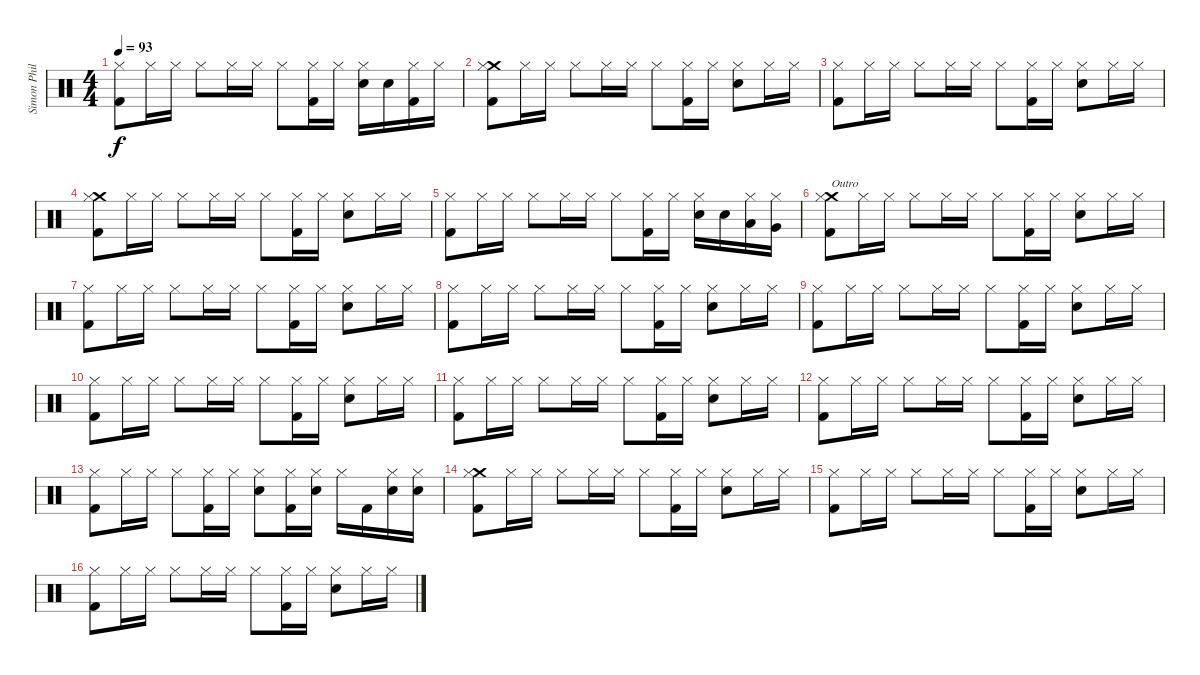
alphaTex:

\track ("Simon Phillips" "Simon Phil") {instrument percussion}
\staff {score}
\articulation defaults
\ts (4 4)
\tempo 93
\clef neutral
\ks c
("Hi-Hat (closed)" "Kick (hit) 2").8{dy f} "Hi-Hat (closed)".16 "Hi-Hat (closed)".16 "Hi-Hat (closed)".8 "Hi-Hat (closed)".16 "Hi-Hat (closed)".16 "Hi-Hat (closed)".8 ("Hi-Hat (closed)" "Kick (hit) 2").16 "Hi-Hat (closed)".16 ("Electric Snare (hit)" "Hi-Hat (closed)").16 "Electric Snare (hit)".16 ("Hi-Hat (closed)" "Kick (hit) 2").16 "Hi-Hat (closed)".16 |
("Crash medium (hit)" "Hi-Hat (closed)" "Kick (hit) 2").8 "Hi-Hat (closed)".16 "Hi-Hat (closed)".16 "Hi-Hat (closed)".8 "Hi-Hat (closed)".16 "Hi-Hat (closed)".16 "Hi-Hat (closed)".8 ("Hi-Hat (closed)" "Kick (hit) 2").16 "Hi-Hat (closed)".16 ("Electric Snare (hit)" "Hi-Hat (closed)").8 "Hi-Hat (closed)".16 "Hi-Hat (closed)".16 |
("Hi-Hat (closed)" "Kick (hit) 2").8 "Hi-Hat (closed)".16 "Hi-Hat (closed)".16 "Hi-Hat (closed)".8 "Hi-Hat (closed)".16 "Hi-Hat (closed)".16 "Hi-Hat (closed)".8 ("Hi-Hat (closed)" "Kick (hit) 2").16 "Hi-Hat (closed)".16 ("Electric Snare (hit)" "Hi-Hat (closed)").8 "Hi-Hat (closed)".16 "Hi-Hat (closed)".16 |
("Crash medium (hit)" "Hi-Hat (closed)" "Kick (hit) 2").8 "Hi-Hat (closed)".16 "Hi-Hat (closed)".16 "Hi-Hat (closed)".8 "Hi-Hat (closed)".16 "Hi-Hat (closed)".16 "Hi-Hat (closed)".8 ("Hi-Hat (closed)" "Kick (hit) 2").16 "Hi-Hat (closed)".16 ("Electric Snare (hit)" "Hi-Hat (closed)").8 "Hi-Hat (closed)".16 "Hi-Hat (closed)".16 |
("Hi-Hat (closed)" "Kick (hit) 2").8 "Hi-Hat (closed)".16 "Hi-Hat (closed)".16 "Hi-Hat (closed)".8 "Hi-Hat (closed)".16 "Hi-Hat (closed)".16 "Hi-Hat (closed)".8 ("Hi-Hat (closed)" "Kick (hit) 2").16 "Hi-Hat (closed)".16 ("Electric Snare (hit)" "Hi-Hat (closed)").16 "Electric Snare (hit)".16 ("Low Tom (hit)" "Hi-Hat (closed)").16 ("Very Low Tom (hit)" "Hi-Hat (closed)").16 |
("Crash medium (hit)" "Hi-Hat (closed)" "Kick (hit) 2").8{txt "Outro"} "Hi-Hat (closed)".16 "Hi-Hat (closed)".16 "Hi-Hat (closed)".8 "Hi-Hat (closed)".16 "Hi-Hat (closed)".16 "Hi-Hat (closed)".8 ("Hi-Hat (closed)" "Kick (hit) 2").16 "Hi-Hat (closed)".16 ("Electric Snare (hit)" "Hi-Hat (closed)").8 "Hi-Hat (closed)".16 "Hi-Hat (closed)".16 |
("Hi-Hat (closed)" "Kick (hit) 2").8 "Hi-Hat (closed)".16 "Hi-Hat (closed)".16 "Hi-Hat (closed)".8 "Hi-Hat (closed)".16 "Hi-Hat (closed)".16 "Hi-Hat (closed)".8 ("Hi-Hat (closed)" "Kick (hit) 2").16 "Hi-Hat (closed)".16 ("Electric Snare (hit)" "Hi-Hat (closed)").8 "Hi-Hat (closed)".16 "Hi-Hat (closed)".16 |
("Hi-Hat (closed)" "Kick (hit) 2").8 "Hi-Hat (closed)".16 "Hi-Hat (closed)".16 "Hi-Hat (closed)".8 "Hi-Hat (closed)".16 "Hi-Hat (closed)".16 "Hi-Hat (closed)".8 ("Hi-Hat (closed)" "Kick (hit) 2").16 "Hi-Hat (closed)".16 ("Electric Snare (hit)" "Hi-Hat (closed)").8 "Hi-Hat (closed)".16 "Hi-Hat (closed)".16 |
("Hi-Hat (closed)" "Kick (hit) 2").8 "Hi-Hat (closed)".16 "Hi-Hat (closed)".16 "Hi-Hat (closed)".8 "Hi-Hat (closed)".16 "Hi-Hat (closed)".16 "Hi-Hat (closed)".8 ("Hi-Hat (closed)" "Kick (hit) 2").16 "Hi-Hat (closed)".16 ("Electric Snare (hit)" "Hi-Hat (closed)").8 "Hi-Hat (closed)".16 "Hi-Hat (closed)".16 |
("Hi-Hat (closed)" "Kick (hit) 2").8 "Hi-Hat (closed)".16 "Hi-Hat (closed)".16 "Hi-Hat (closed)".8 "Hi-Hat (closed)".16 "Hi-Hat (closed)".16 "Hi-Hat (closed)".8 ("Hi-Hat (closed)" "Kick (hit) 2").16 "Hi-Hat (closed)".16 ("Electric Snare (hit)" "Hi-Hat (closed)").8 "Hi-Hat (closed)".16 "Hi-Hat (closed)".16 |
("Hi-Hat (closed)" "Kick (hit) 2").8 "Hi-Hat (closed)".16 "Hi-Hat (closed)".16 "Hi-Hat (closed)".8 "Hi-Hat (closed)".16 "Hi-Hat (closed)".16 "Hi-Hat (closed)".8 ("Hi-Hat (closed)" "Kick (hit) 2").16 "Hi-Hat (closed)".16 ("Electric Snare (hit)" "Hi-Hat (closed)").8 "Hi-Hat (closed)".16 "Hi-Hat (closed)".16 |
("Hi-Hat (closed)" "Kick (hit) 2").8 "Hi-Hat (closed)".16 "Hi-Hat (closed)".16 "Hi-Hat (closed)".8 "Hi-Hat (closed)".16 "Hi-Hat (closed)".16 "Hi-Hat (closed)".8 ("Hi-Hat (closed)" "Kick (hit) 2").16 "Hi-Hat (closed)".16 ("Electric Snare (hit)" "Hi-Hat (closed)").8 "Hi-Hat (closed)".16 "Hi-Hat (closed)".16 |
("Hi-Hat (closed)" "Kick (hit) 2").8 "Hi-Hat (closed)".16 "Hi-Hat (closed)".16 "Hi-Hat (closed)".8 ("Hi-Hat (closed)" "Kick (hit) 2").16 "Hi-Hat (closed)".16 ("Electric Snare (hit)" "Hi-Hat (closed)").8 ("Hi-Hat (closed)" "Kick (hit) 2").16 ("Electric Snare (hit)" "Hi-Hat (closed)").16 "Hi-Hat (closed)".16 "Kick (hit) 2".16 ("Electric Snare (hit)" "Hi-Hat (closed)").16 ("Electric Snare (hit)" "Hi-Hat (closed)").16 |
("Crash medium (hit)" "Hi-Hat (closed)" "Kick (hit) 2").8 "Hi-Hat (closed)".16 "Hi-Hat (closed)".16 "Hi-Hat (closed)".8 "Hi-Hat (closed)".16 "Hi-Hat (closed)".16 "Hi-Hat (closed)".8 ("Hi-Hat (closed)" "Kick (hit) 2").16 "Hi-Hat (closed)".16 ("Electric Snare (hit)" "Hi-Hat (closed)").8 "Hi-Hat (closed)".16 "Hi-Hat (closed)".16 |
("Hi-Hat (closed)" "Kick (hit) 2").8 "Hi-Hat (closed)".16 "Hi-Hat (closed)".16 "Hi-Hat (closed)".8 "Hi-Hat (closed)".16 "Hi-Hat (closed)".16 "Hi-Hat (closed)".8 ("Hi-Hat (closed)" "Kick (hit) 2").16 "Hi-Hat (closed)".16 ("Electric Snare (hit)" "Hi-Hat (closed)").8 "Hi-Hat (closed)".16 "Hi-Hat (closed)".16 |
("Hi-Hat (closed)" "Kick (hit) 2").8 "Hi-Hat (closed)".16 "Hi-Hat (closed)".16 "Hi-Hat (closed)".8 "Hi-Hat (closed)".16 "Hi-Hat (closed)".16 "Hi-Hat (closed)".8 ("Hi-Hat (closed)" "Kick (hit) 2").16 "Hi-Hat (closed)".16 ("Electric Snare (hit)" "Hi-Hat (closed)").8 "Hi-Hat (closed)".16 "Hi-Hat (closed)".16
